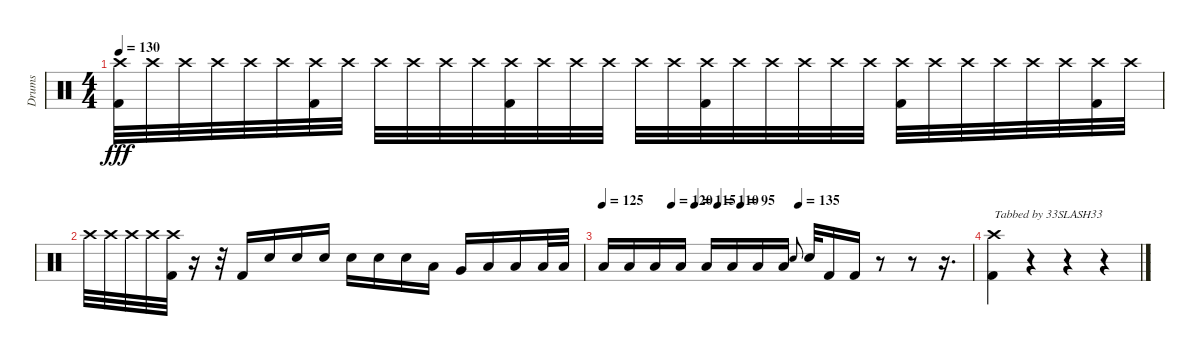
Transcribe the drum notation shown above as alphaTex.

\track ("Drums" "Drums") {instrument percussion}
\staff {score}
\articulation defaults
\ts (4 4)
\tempo 130
\clef neutral
\ks c
("Crash high (hit)" "Kick (hit) 2").32{dy fff} "Crash high (hit)".32 "Crash high (hit)".32 "Crash high (hit)".32 "Crash high (hit)".32 "Crash high (hit)".32 ("Crash high (hit)" "Kick (hit) 2").32 "Crash high (hit)".32 "Crash high (hit)".32 "Crash high (hit)".32 "Crash high (hit)".32 "Crash high (hit)".32 ("Crash high (hit)" "Kick (hit) 2").32 "Crash high (hit)".32 "Crash high (hit)".32 "Crash high (hit)".32 "Crash high (hit)".32 "Crash high (hit)".32 ("Crash high (hit)" "Kick (hit) 2").32 "Crash high (hit)".32 "Crash high (hit)".32 "Crash high (hit)".32 "Crash high (hit)".32 "Crash high (hit)".32 ("Crash high (hit)" "Kick (hit) 2").32 "Crash high (hit)".32 "Crash high (hit)".32 "Crash high (hit)".32 "Crash high (hit)".32 "Crash high (hit)".32 ("Crash high (hit)" "Kick (hit) 2").32 "Crash high (hit)".32 |
"Crash high (hit)".32 "Crash high (hit)".32 "Crash high (hit)".32 "Crash high (hit)".32 ("Crash high (hit)" "Kick (hit) 2").32 r.16 r.32 "Kick (hit) 2".16 "Snare (hit) 2".16 "Snare (hit) 2".16 "Snare (hit) 2".16 "Snare (hit) 2".16 "Snare (hit) 2".16 "Snare (hit) 2".16 "Low Tom (hit)".16 "Very Low Tom (hit)".16 "Low Floor Tom (hit)".16 "Low Floor Tom (hit)".16 "Low Floor Tom (hit)".32 "Low Floor Tom (hit)".32 |
\tempo 125
\tempo (120 0.1875)
\tempo (115 0.25)
\tempo (110 0.3125)
\tempo (95 0.375)
\tempo (135 0.53125)
"Low Floor Tom (hit)".16 "Low Floor Tom (hit)".16 "Low Floor Tom (hit)".16 "Low Floor Tom (hit)".16 "Low Floor Tom (hit)".16 "Low Floor Tom (hit)".16 "Low Floor Tom (hit)".16 "Low Floor Tom (hit)".16 "Snare (hit) 2".8{gr onbeat} "Snare (hit) 2".32 "Kick (hit) 2".16 "Kick (hit) 2".16 r.8 r.8 r.16{d} |
("Crash high (hit)" "Kick (hit) 2").4{txt "Tabbed by 33SLASH33"} r.4 r.4 r.4
